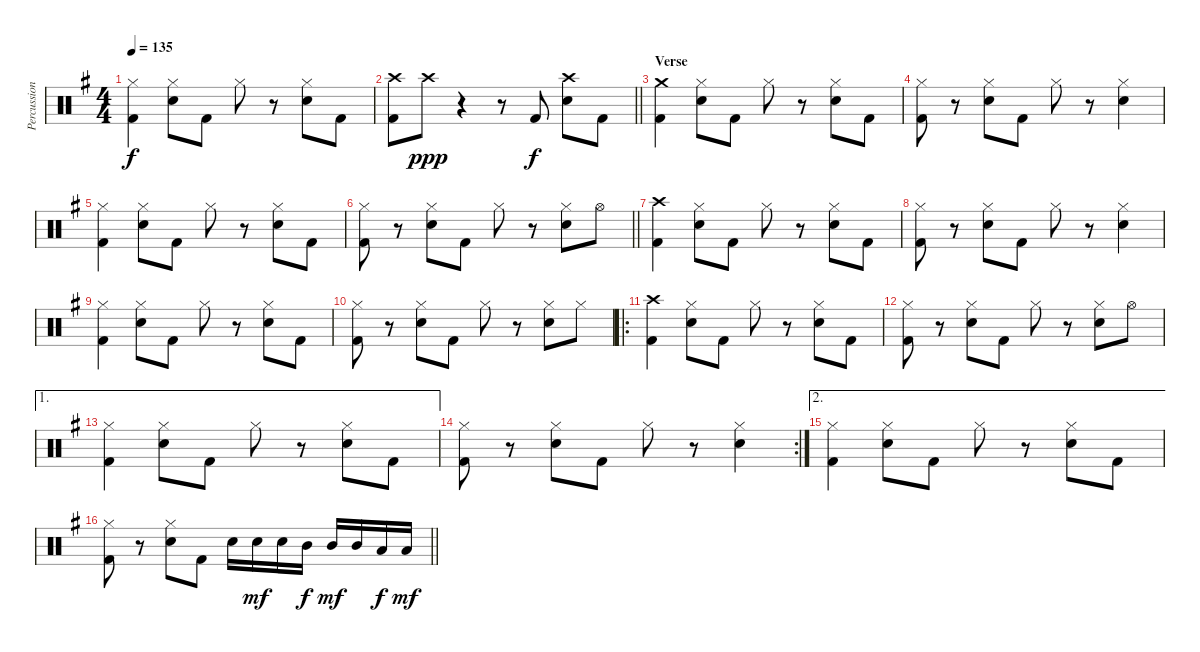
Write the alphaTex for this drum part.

\track ("Percussion" "Percussion") {instrument percussion}
\staff {score}
\articulation defaults
\ts (4 4)
\tempo 135
\clef neutral
\ks g
("Hi-Hat (closed)" "Kick (hit) 2").4{dy f} ("Hi-Hat (closed)" "Electric Snare (hit)").8 "Kick (hit) 2".8 "Hi-Hat (closed)".8 r.8 ("Hi-Hat (closed)" "Electric Snare (hit)").8 "Kick (hit) 2".8 |
\barLineRight lightlight
("Crash high (hit)" "Kick (hit) 2").8 "Crash high (hit)".8{dy ppp} r.4 r.8 "Kick (hit) 2".8{dy f} ("Crash high (hit)" "Electric Snare (hit)").8 "Kick (hit) 2".8 |
\section ("" "Verse")
("Crash medium (hit)" "Kick (hit) 2").4 ("Hi-Hat (closed)" "Electric Snare (hit)").8 "Kick (hit) 2".8 "Hi-Hat (closed)".8 r.8 ("Hi-Hat (closed)" "Electric Snare (hit)").8 "Kick (hit) 2".8 |
("Hi-Hat (closed)" "Kick (hit) 2").8 r.8 ("Hi-Hat (closed)" "Electric Snare (hit)").8 "Kick (hit) 2".8 "Hi-Hat (closed)".8 r.8 ("Hi-Hat (closed)" "Electric Snare (hit)").4 |
("Hi-Hat (closed)" "Kick (hit) 2").4 ("Hi-Hat (closed)" "Electric Snare (hit)").8 "Kick (hit) 2".8 "Hi-Hat (closed)".8 r.8 ("Hi-Hat (closed)" "Electric Snare (hit)").8 "Kick (hit) 2".8 |
\barLineRight lightlight
("Hi-Hat (closed)" "Kick (hit) 2").8 r.8 ("Hi-Hat (closed)" "Electric Snare (hit)").8 "Kick (hit) 2".8 "Hi-Hat (closed)".8 r.8 ("Hi-Hat (closed)" "Electric Snare (hit)").8 "Hi-Hat (open)".8 |
\section ("" "")
("Crash high (hit)" "Kick (hit) 2").4 ("Hi-Hat (closed)" "Electric Snare (hit)").8 "Kick (hit) 2".8 "Hi-Hat (closed)".8 r.8 ("Hi-Hat (closed)" "Electric Snare (hit)").8 "Kick (hit) 2".8 |
("Hi-Hat (closed)" "Kick (hit) 2").8 r.8 ("Hi-Hat (closed)" "Electric Snare (hit)").8 "Kick (hit) 2".8 "Hi-Hat (closed)".8 r.8 ("Hi-Hat (closed)" "Electric Snare (hit)").4 |
("Hi-Hat (closed)" "Kick (hit) 2").4 ("Hi-Hat (closed)" "Electric Snare (hit)").8 "Kick (hit) 2".8 "Hi-Hat (closed)".8 r.8 ("Hi-Hat (closed)" "Electric Snare (hit)").8 "Kick (hit) 2".8 |
("Hi-Hat (closed)" "Kick (hit) 2").8 r.8 ("Hi-Hat (closed)" "Electric Snare (hit)").8 "Kick (hit) 2".8 "Hi-Hat (closed)".8 r.8 ("Hi-Hat (closed)" "Electric Snare (hit)").8 "Hi-Hat (closed)".8 |
\ro
("Crash high (hit)" "Kick (hit) 2").4 ("Hi-Hat (closed)" "Electric Snare (hit)").8 "Kick (hit) 2".8 "Hi-Hat (closed)".8 r.8 ("Hi-Hat (closed)" "Electric Snare (hit)").8 "Kick (hit) 2".8 |
("Hi-Hat (closed)" "Kick (hit) 2").8 r.8 ("Hi-Hat (closed)" "Electric Snare (hit)").8 "Kick (hit) 2".8 "Hi-Hat (closed)".8 r.8 ("Hi-Hat (closed)" "Electric Snare (hit)").8 "Hi-Hat (open)".8 |
\ae 1
("Hi-Hat (closed)" "Kick (hit) 2").4 ("Hi-Hat (closed)" "Electric Snare (hit)").8 "Kick (hit) 2".8 "Hi-Hat (closed)".8 r.8 ("Hi-Hat (closed)" "Electric Snare (hit)").8 "Kick (hit) 2".8 |
\rc 2
("Hi-Hat (closed)" "Kick (hit) 2").8 r.8 ("Hi-Hat (closed)" "Electric Snare (hit)").8 "Kick (hit) 2".8 "Hi-Hat (closed)".8 r.8 ("Hi-Hat (closed)" "Electric Snare (hit)").4 |
\ae 2
("Hi-Hat (closed)" "Kick (hit) 2").4 ("Hi-Hat (closed)" "Electric Snare (hit)").8 "Kick (hit) 2".8 "Hi-Hat (closed)".8 r.8 ("Hi-Hat (closed)" "Electric Snare (hit)").8 "Kick (hit) 2".8 |
\barLineRight lightlight
("Hi-Hat (closed)" "Kick (hit) 2").8 r.8 ("Hi-Hat (closed)" "Electric Snare (hit)").8 "Kick (hit) 2".8 "Electric Snare (hit)".16 "Electric Snare (hit)".16{dy mf} "Electric Snare (hit)".16 "Mid Tom (hit)".16{dy f} "Mid Tom (hit)".16{dy mf} "Mid Tom (hit)".16 "Low Tom (hit)".16{dy f} "Low Tom (hit)".16{dy mf}
